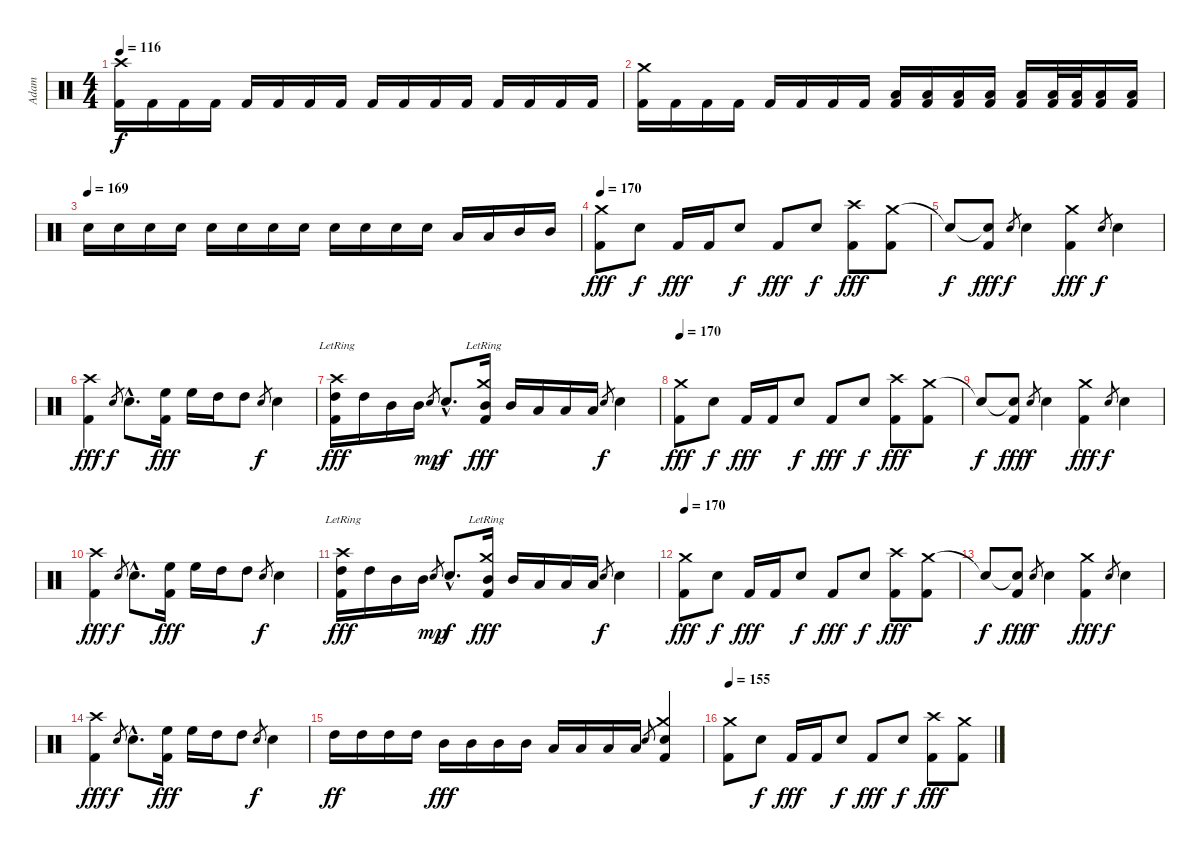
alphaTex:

\track ("Adam" "Adam") {instrument percussion}
\staff {score}
\articulation defaults
\ts (4 4)
\tempo 116
\clef neutral
\ks c
("Crash high (hit)" "Kick (hit) 2").16{dy f} "Kick (hit) 2".16 "Kick (hit) 2".16 "Kick (hit) 2".16 "Kick (hit) 2".16 "Kick (hit) 2".16 "Kick (hit) 2".16 "Kick (hit) 2".16 "Kick (hit) 2".16 "Kick (hit) 2".16 "Kick (hit) 2".16 "Kick (hit) 2".16 "Kick (hit) 2".16 "Kick (hit) 2".16 "Kick (hit) 2".16 "Kick (hit) 2".16 |
("Crash medium (hit)" "Kick (hit) 2").16 "Kick (hit) 2".16 "Kick (hit) 2".16 "Kick (hit) 2".16 "Kick (hit) 2".16 "Kick (hit) 2".16 "Kick (hit) 2".16 "Kick (hit) 2".16 ("Low Tom (hit)" "Kick (hit) 2").16 ("Low Tom (hit)" "Kick (hit) 2").16 ("Low Tom (hit)" "Kick (hit) 2").16 ("Low Tom (hit)" "Kick (hit) 2").16 ("Low Floor Tom (hit)" "Kick (hit) 2").16 ("Low Floor Tom (hit)" "Kick (hit) 2").32 ("Low Floor Tom (hit)" "Kick (hit) 2").32 ("Low Floor Tom (hit)" "Kick (hit) 2").16 ("Low Floor Tom (hit)" "Kick (hit) 2").16 |
\tempo (169)
"Electric Snare (hit)".16 "Electric Snare (hit)".16 "Electric Snare (hit)".16 "Electric Snare (hit)".16 "Electric Snare (hit)".16 "Electric Snare (hit)".16 "Electric Snare (hit)".16 "Electric Snare (hit)".16 "Electric Snare (hit)".16 "Electric Snare (hit)".16 "Electric Snare (hit)".16 "Electric Snare (hit)".16 "Low Tom (hit)".16 "Low Tom (hit)".16 "Mid Tom (hit)".16 "Mid Tom (hit)".16 |
\tempo 170
("Crash medium (hit)" "Kick (hit) 2").8{dy fff} "Electric Snare (hit)".8{dy f} "Kick (hit) 2".16{dy fff} "Kick (hit) 2".16 "Electric Snare (hit)".8{dy f} "Kick (hit) 2".8{dy fff} "Electric Snare (hit)".8{dy f} ("Crash high (hit)" "Kick (hit) 2").8{dy fff} ("Crash medium (hit)" "Kick (hit) 2").8 |
"Snare (hit)"{t}.8{dy f} ("Snare (hit)"{t} "Kick (hit) 2").8{dy fff} "Electric Snare (hit)".8{gr dy f} "Electric Snare (hit)".4 ("Crash medium (hit)" "Kick (hit) 2").4{dy fff} "Electric Snare (hit)".8{gr dy f} "Electric Snare (hit)".4 |
("Crash high (hit)" "Kick (hit) 2").4{dy fff} "Electric Snare (hit)".8{gr dy f} "Electric Snare (hit)"{hac}.8{d} ("High Floor Tom (hit)" "Kick (hit) 2").16{dy fff} "High Floor Tom (hit)".16 "High Tom (hit)".16 "High Tom (hit)".8 "Electric Snare (hit)".8{gr dy f} "Electric Snare (hit)".4 |
("Crash high (hit)"{lr} "High Tom (hit)" "Kick (hit) 2").16{dy fff} "High Tom (hit)".16 "Mid Tom (hit)".16 "Mid Tom (hit)".16 "Snare (hit) 2".8{gr dy mp} "Electric Snare (hit)"{hac}.8{d dy f} ("Crash medium (hit)"{lr} "Mid Tom (hit)" "Kick (hit) 2").16{dy fff} "Mid Tom (hit)".16 "Low Tom (hit)".16 "Low Tom (hit)".16 "Low Tom (hit)".16 "Snare (hit) 2".8{gr dy f} "Electric Snare (hit)".4 |
\tempo 170
("Crash medium (hit)" "Kick (hit) 2").8{dy fff} "Electric Snare (hit)".8{dy f} "Kick (hit) 2".16{dy fff} "Kick (hit) 2".16 "Electric Snare (hit)".8{dy f} "Kick (hit) 2".8{dy fff} "Electric Snare (hit)".8{dy f} ("Crash high (hit)" "Kick (hit) 2").8{dy fff} ("Crash medium (hit)" "Kick (hit) 2").8 |
"Snare (hit)"{t}.8{dy f} ("Snare (hit)"{t} "Kick (hit) 2").8{dy fff} "Electric Snare (hit)".8{gr dy f} "Electric Snare (hit)".4 ("Crash medium (hit)" "Kick (hit) 2").4{dy fff} "Electric Snare (hit)".8{gr dy f} "Electric Snare (hit)".4 |
("Crash high (hit)" "Kick (hit) 2").4{dy fff} "Electric Snare (hit)".8{gr dy f} "Electric Snare (hit)"{hac}.8{d} ("High Floor Tom (hit)" "Kick (hit) 2").16{dy fff} "High Floor Tom (hit)".16 "High Tom (hit)".16 "High Tom (hit)".8 "Electric Snare (hit)".8{gr dy f} "Electric Snare (hit)".4 |
("Crash high (hit)"{lr} "High Tom (hit)" "Kick (hit) 2").16{dy fff} "High Tom (hit)".16 "Mid Tom (hit)".16 "Mid Tom (hit)".16 "Snare (hit) 2".8{gr dy mp} "Electric Snare (hit)"{hac}.8{d dy f} ("Crash medium (hit)"{lr} "Mid Tom (hit)" "Kick (hit) 2").16{dy fff} "Mid Tom (hit)".16 "Low Tom (hit)".16 "Low Tom (hit)".16 "Low Tom (hit)".16 "Snare (hit) 2".8{gr dy f} "Electric Snare (hit)".4 |
\tempo 170
("Crash medium (hit)" "Kick (hit) 2").8{dy fff} "Electric Snare (hit)".8{dy f} "Kick (hit) 2".16{dy fff} "Kick (hit) 2".16 "Electric Snare (hit)".8{dy f} "Kick (hit) 2".8{dy fff} "Electric Snare (hit)".8{dy f} ("Crash high (hit)" "Kick (hit) 2").8{dy fff} ("Crash medium (hit)" "Kick (hit) 2").8 |
"Snare (hit)"{t}.8{dy f} ("Snare (hit)"{t} "Kick (hit) 2").8{dy fff} "Electric Snare (hit)".8{gr dy f} "Electric Snare (hit)".4 ("Crash medium (hit)" "Kick (hit) 2").4{dy fff} "Electric Snare (hit)".8{gr dy f} "Electric Snare (hit)".4 |
("Crash high (hit)" "Kick (hit) 2").4{dy fff} "Electric Snare (hit)".8{gr dy f} "Electric Snare (hit)"{hac}.8{d} ("High Floor Tom (hit)" "Kick (hit) 2").16{dy fff} "High Floor Tom (hit)".16 "High Tom (hit)".16 "High Tom (hit)".8 "Electric Snare (hit)".8{gr dy f} "Electric Snare (hit)".4 |
"High Tom (hit)".16{dy ff} "High Tom (hit)".16 "High Tom (hit)".16 "High Tom (hit)".16 "Mid Tom (hit)".16{dy fff} "Mid Tom (hit)".16 "Mid Tom (hit)".16 "Mid Tom (hit)".16 "Low Tom (hit)".16 "Low Tom (hit)".16 "Low Tom (hit)".16 "Low Tom (hit)".16 "Electric Snare (hit)".8{gr} ("Crash medium (hit)" "Electric Snare (hit)" "Kick (hit) 2").4 |
\tempo 155
("Crash medium (hit)" "Kick (hit) 2").8 "Electric Snare (hit)".8{dy f} "Kick (hit) 2".16{dy fff} "Kick (hit) 2".16 "Electric Snare (hit)".8{dy f} "Kick (hit) 2".8{dy fff} "Electric Snare (hit)".8{dy f} ("Crash high (hit)" "Kick (hit) 2").8{dy fff} ("Crash medium (hit)" "Kick (hit) 2").8
